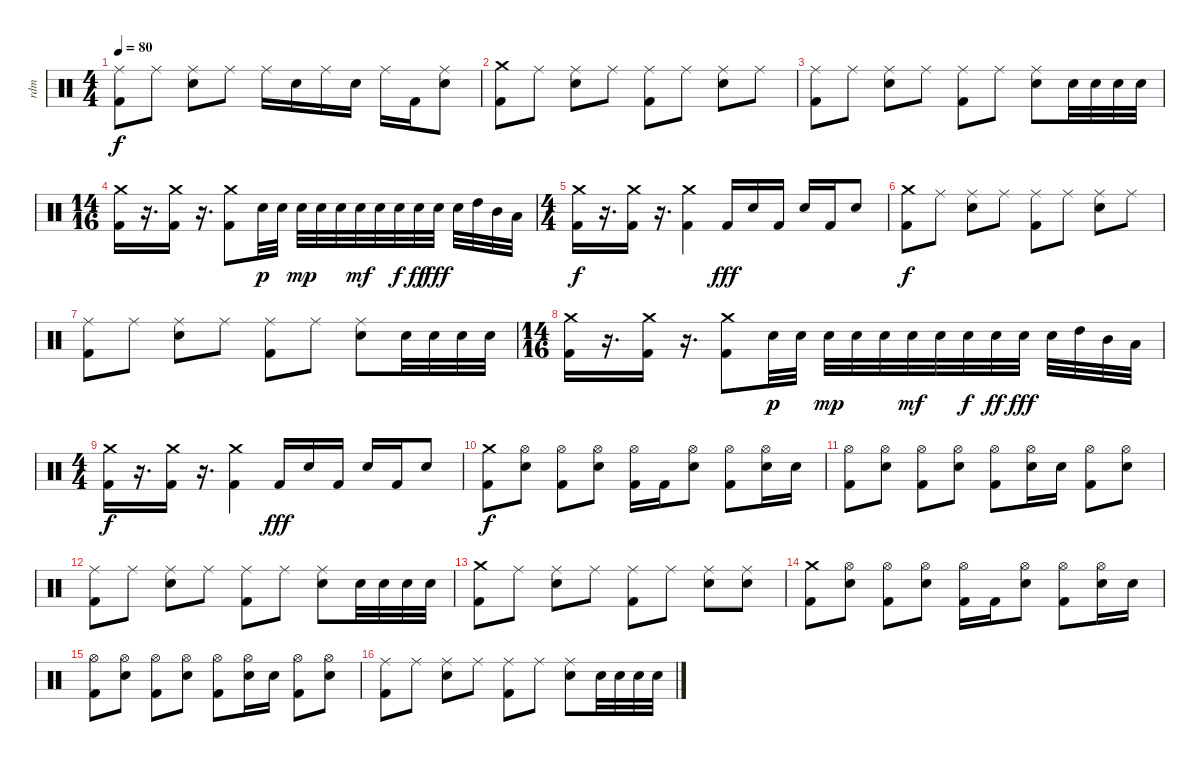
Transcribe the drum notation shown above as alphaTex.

\track ("rdm" "rdm") {instrument percussion}
\staff {score}
\articulation defaults
\ts (4 4)
\tempo 80
\clef neutral
\ks c
("Ride (middle)" "Kick (hit) 2").8{dy f} "Ride (middle)".8 ("Ride (middle)" "Snare (hit) 2").8 "Ride (middle)".8 "Ride (middle)".16 "Snare (hit) 2".16 "Ride (middle)".16 "Snare (hit) 2".16 "Ride (middle)".16 "Kick (hit) 2".16 ("Ride (middle)" "Snare (hit) 2").8 |
("Crash medium (hit)" "Kick (hit) 2").8 "Ride (middle)".8 ("Ride (middle)" "Snare (hit) 2").8 "Ride (middle)".8 ("Ride (middle)" "Kick (hit) 2").8 "Ride (middle)".8 ("Ride (middle)" "Snare (hit) 2").8 "Ride (middle)".8 |
("Ride (middle)" "Kick (hit) 2").8 "Ride (middle)".8 ("Ride (middle)" "Snare (hit) 2").8 "Ride (middle)".8 ("Ride (middle)" "Kick (hit) 2").8 "Ride (middle)".8 ("Ride (middle)" "Snare (hit) 2").8 "Snare (hit) 2".32 "Snare (hit) 2".32 "Snare (hit) 2".32 "Snare (hit) 2".32 |
\ts (14 16)
("Crash medium (hit)" "Kick (hit) 2").16 r.16{d} ("Crash medium (hit)" "Kick (hit) 2").16 r.16{d} ("Crash medium (hit)" "Kick (hit) 2").8 "Snare (hit) 2".32{dy p} "Snare (hit) 2".32 "Snare (hit) 2".32{dy mp} "Snare (hit) 2".32 "Snare (hit) 2".32 "Snare (hit) 2".32{dy mf} "Snare (hit) 2".32 "Snare (hit) 2".32{dy f} "Snare (hit) 2".32{dy ff} "Snare (hit) 2".32{dy fff} "Snare (hit) 2".32 "High Tom (hit)".32 "Mid Tom (hit)".32 "Low Tom (hit)".32 |
\ts (4 4)
("Crash medium (hit)" "Kick (hit) 2").16{dy f} r.16{d} ("Crash medium (hit)" "Kick (hit) 2").16 r.16{d} ("Crash medium (hit)" "Kick (hit) 2").4 "Kick (hit) 2".16{dy fff} "Snare (hit) 2".16 "Kick (hit) 2".16 "Snare (hit) 2".16 "Kick (hit) 2".16 "Snare (hit) 2".8 |
("Crash medium (hit)" "Kick (hit) 2").8{dy f} "Ride (middle)".8 ("Ride (middle)" "Snare (hit) 2").8 "Ride (middle)".8 ("Ride (middle)" "Kick (hit) 2").8 "Ride (middle)".8 ("Ride (middle)" "Snare (hit) 2").8 "Ride (middle)".8 |
("Ride (middle)" "Kick (hit) 2").8 "Ride (middle)".8 ("Ride (middle)" "Snare (hit) 2").8 "Ride (middle)".8 ("Ride (middle)" "Kick (hit) 2").8 "Ride (middle)".8 ("Ride (middle)" "Snare (hit) 2").8 "Snare (hit) 2".32 "Snare (hit) 2".32 "Snare (hit) 2".32 "Snare (hit) 2".32 |
\ts (14 16)
("Crash medium (hit)" "Kick (hit) 2").16 r.16{d} ("Crash medium (hit)" "Kick (hit) 2").16 r.16{d} ("Crash medium (hit)" "Kick (hit) 2").8 "Snare (hit) 2".32{dy p} "Snare (hit) 2".32 "Snare (hit) 2".32{dy mp} "Snare (hit) 2".32 "Snare (hit) 2".32 "Snare (hit) 2".32{dy mf} "Snare (hit) 2".32 "Snare (hit) 2".32{dy f} "Snare (hit) 2".32{dy ff} "Snare (hit) 2".32{dy fff} "Snare (hit) 2".32 "High Tom (hit)".32 "Mid Tom (hit)".32 "Low Tom (hit)".32 |
\ts (4 4)
("Crash medium (hit)" "Kick (hit) 2").16{dy f} r.16{d} ("Crash medium (hit)" "Kick (hit) 2").16 r.16{d} ("Crash medium (hit)" "Kick (hit) 2").4 "Kick (hit) 2".16{dy fff} "Snare (hit) 2".16 "Kick (hit) 2".16 "Snare (hit) 2".16 "Kick (hit) 2".16 "Snare (hit) 2".8 |
("Crash medium (hit)" "Kick (hit) 2").8{dy f} ("Hi-Hat (open)" "Snare (hit) 2").8 ("Hi-Hat (open)" "Kick (hit) 2").8 ("Hi-Hat (open)" "Snare (hit) 2").8 ("Hi-Hat (open)" "Kick (hit) 2").16 "Kick (hit) 2".16 ("Hi-Hat (open)" "Snare (hit) 2").8 ("Hi-Hat (open)" "Kick (hit) 2").8 ("Hi-Hat (open)" "Snare (hit) 2").16 "Snare (hit) 2".16 |
("Hi-Hat (open)" "Kick (hit) 2").8 ("Hi-Hat (open)" "Snare (hit) 2").8 ("Hi-Hat (open)" "Kick (hit) 2").8 ("Hi-Hat (open)" "Snare (hit) 2").8 ("Hi-Hat (open)" "Kick (hit) 2").8 ("Hi-Hat (open)" "Snare (hit) 2").16 "Snare (hit) 2".16 ("Hi-Hat (open)" "Kick (hit) 2").8 ("Hi-Hat (open)" "Snare (hit) 2").8 |
("Ride (middle)" "Kick (hit) 2").8 "Ride (middle)".8 ("Ride (middle)" "Snare (hit) 2").8 "Ride (middle)".8 ("Ride (middle)" "Kick (hit) 2").8 "Ride (middle)".8 ("Ride (middle)" "Snare (hit) 2").8 "Snare (hit) 2".32 "Snare (hit) 2".32 "Snare (hit) 2".32 "Snare (hit) 2".32 |
("Crash medium (hit)" "Kick (hit) 2").8 "Ride (middle)".8 ("Ride (middle)" "Snare (hit) 2").8 "Ride (middle)".8 ("Ride (middle)" "Kick (hit) 2").8 "Ride (middle)".8 ("Ride (middle)" "Snare (hit) 2").8 ("Ride (middle)" "Snare (hit) 2").8 |
("Crash medium (hit)" "Kick (hit) 2").8 ("Hi-Hat (open)" "Snare (hit) 2").8 ("Hi-Hat (open)" "Kick (hit) 2").8 ("Hi-Hat (open)" "Snare (hit) 2").8 ("Hi-Hat (open)" "Kick (hit) 2").16 "Kick (hit) 2".16 ("Hi-Hat (open)" "Snare (hit) 2").8 ("Hi-Hat (open)" "Kick (hit) 2").8 ("Hi-Hat (open)" "Snare (hit) 2").16 "Snare (hit) 2".16 |
("Hi-Hat (open)" "Kick (hit) 2").8 ("Hi-Hat (open)" "Snare (hit) 2").8 ("Hi-Hat (open)" "Kick (hit) 2").8 ("Hi-Hat (open)" "Snare (hit) 2").8 ("Hi-Hat (open)" "Kick (hit) 2").8 ("Hi-Hat (open)" "Snare (hit) 2").16 "Snare (hit) 2".16 ("Hi-Hat (open)" "Kick (hit) 2").8 ("Hi-Hat (open)" "Snare (hit) 2").8 |
("Ride (middle)" "Kick (hit) 2").8 "Ride (middle)".8 ("Ride (middle)" "Snare (hit) 2").8 "Ride (middle)".8 ("Ride (middle)" "Kick (hit) 2").8 "Ride (middle)".8 ("Ride (middle)" "Snare (hit) 2").8 "Snare (hit) 2".32 "Snare (hit) 2".32 "Snare (hit) 2".32 "Snare (hit) 2".32
